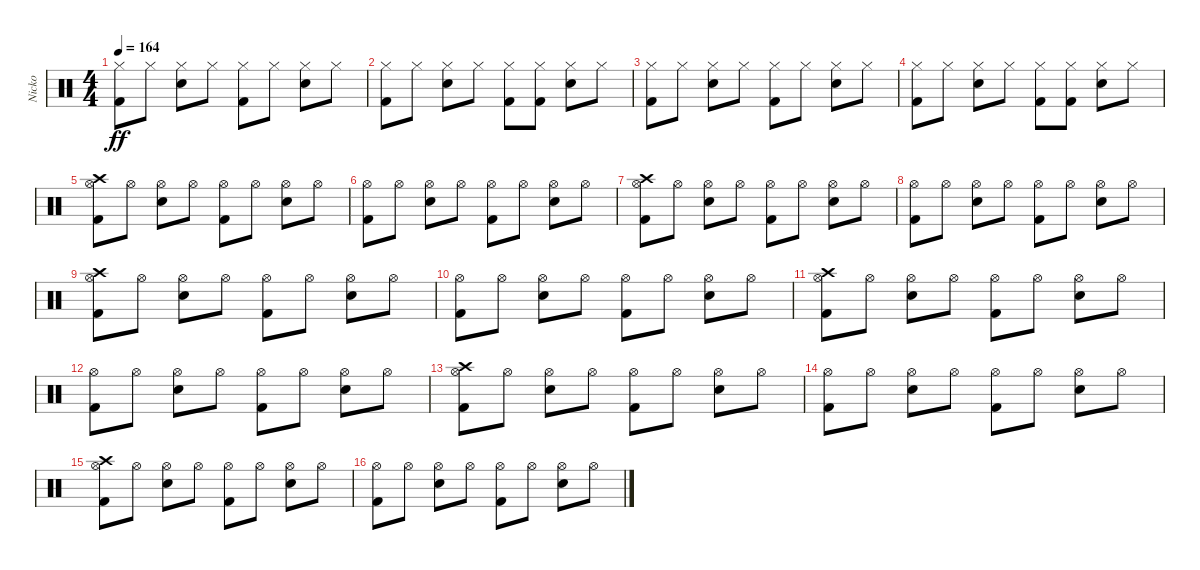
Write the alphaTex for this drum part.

\track ("Nicko" "Nicko") {instrument percussion}
\staff {score}
\articulation defaults
\ts (4 4)
\tempo 164
\clef neutral
\ks c
("Kick (hit) 2" "Hi-Hat (closed)").8{dy ff} "Hi-Hat (closed)".8 ("Snare (hit) 2" "Hi-Hat (closed)").8 "Hi-Hat (closed)".8 ("Kick (hit) 2" "Hi-Hat (closed)").8 "Hi-Hat (closed)".8 ("Snare (hit) 2" "Hi-Hat (closed)").8 "Hi-Hat (closed)".8 |
("Kick (hit) 2" "Hi-Hat (closed)").8 "Hi-Hat (closed)".8 ("Snare (hit) 2" "Hi-Hat (closed)").8 "Hi-Hat (closed)".8 ("Kick (hit) 2" "Hi-Hat (closed)").8 ("Kick (hit) 2" "Hi-Hat (closed)").8 ("Snare (hit) 2" "Hi-Hat (closed)").8 "Hi-Hat (closed)".8 |
("Kick (hit) 2" "Hi-Hat (closed)").8 "Hi-Hat (closed)".8 ("Snare (hit) 2" "Hi-Hat (closed)").8 "Hi-Hat (closed)".8 ("Kick (hit) 2" "Hi-Hat (closed)").8 "Hi-Hat (closed)".8 ("Snare (hit) 2" "Hi-Hat (closed)").8 "Hi-Hat (closed)".8 |
("Kick (hit) 2" "Hi-Hat (closed)").8 "Hi-Hat (closed)".8 ("Snare (hit) 2" "Hi-Hat (closed)").8 "Hi-Hat (closed)".8 ("Kick (hit) 2" "Hi-Hat (closed)").8 ("Kick (hit) 2" "Hi-Hat (closed)").8 ("Snare (hit) 2" "Hi-Hat (closed)").8 "Hi-Hat (closed)".8 |
("Kick (hit) 2" "Hi-Hat (open)" "Crash high (hit)").8 "Hi-Hat (open)".8 ("Snare (hit) 2" "Hi-Hat (open)").8 "Hi-Hat (open)".8 ("Kick (hit) 2" "Hi-Hat (open)").8 "Hi-Hat (open)".8 ("Snare (hit) 2" "Hi-Hat (open)").8 "Hi-Hat (open)".8 |
("Kick (hit) 2" "Hi-Hat (open)").8 "Hi-Hat (open)".8 ("Snare (hit) 2" "Hi-Hat (open)").8 "Hi-Hat (open)".8 ("Kick (hit) 2" "Hi-Hat (open)").8 "Hi-Hat (open)".8 ("Snare (hit) 2" "Hi-Hat (open)").8 "Hi-Hat (open)".8 |
("Kick (hit) 2" "Hi-Hat (open)" "Crash high (hit)").8 "Hi-Hat (open)".8 ("Snare (hit) 2" "Hi-Hat (open)").8 "Hi-Hat (open)".8 ("Kick (hit) 2" "Hi-Hat (open)").8 "Hi-Hat (open)".8 ("Snare (hit) 2" "Hi-Hat (open)").8 "Hi-Hat (open)".8 |
("Kick (hit) 2" "Hi-Hat (open)").8 "Hi-Hat (open)".8 ("Snare (hit) 2" "Hi-Hat (open)").8 "Hi-Hat (open)".8 ("Kick (hit) 2" "Hi-Hat (open)").8 "Hi-Hat (open)".8 ("Snare (hit) 2" "Hi-Hat (open)").8 "Hi-Hat (open)".8 |
("Kick (hit) 2" "Hi-Hat (open)" "Crash high (hit)").8 "Hi-Hat (open)".8 ("Snare (hit) 2" "Hi-Hat (open)").8 "Hi-Hat (open)".8 ("Kick (hit) 2" "Hi-Hat (open)").8 "Hi-Hat (open)".8 ("Snare (hit) 2" "Hi-Hat (open)").8 "Hi-Hat (open)".8 |
("Kick (hit) 2" "Hi-Hat (open)").8 "Hi-Hat (open)".8 ("Snare (hit) 2" "Hi-Hat (open)").8 "Hi-Hat (open)".8 ("Kick (hit) 2" "Hi-Hat (open)").8 "Hi-Hat (open)".8 ("Snare (hit) 2" "Hi-Hat (open)").8 "Hi-Hat (open)".8 |
("Kick (hit) 2" "Hi-Hat (open)" "Crash high (hit)").8 "Hi-Hat (open)".8 ("Snare (hit) 2" "Hi-Hat (open)").8 "Hi-Hat (open)".8 ("Kick (hit) 2" "Hi-Hat (open)").8 "Hi-Hat (open)".8 ("Snare (hit) 2" "Hi-Hat (open)").8 "Hi-Hat (open)".8 |
("Kick (hit) 2" "Hi-Hat (open)").8 "Hi-Hat (open)".8 ("Snare (hit) 2" "Hi-Hat (open)").8 "Hi-Hat (open)".8 ("Kick (hit) 2" "Hi-Hat (open)").8 "Hi-Hat (open)".8 ("Snare (hit) 2" "Hi-Hat (open)").8 "Hi-Hat (open)".8 |
("Kick (hit) 2" "Hi-Hat (open)" "Crash high (hit)").8 "Hi-Hat (open)".8 ("Snare (hit) 2" "Hi-Hat (open)").8 "Hi-Hat (open)".8 ("Kick (hit) 2" "Hi-Hat (open)").8 "Hi-Hat (open)".8 ("Snare (hit) 2" "Hi-Hat (open)").8 "Hi-Hat (open)".8 |
("Kick (hit) 2" "Hi-Hat (open)").8 "Hi-Hat (open)".8 ("Snare (hit) 2" "Hi-Hat (open)").8 "Hi-Hat (open)".8 ("Kick (hit) 2" "Hi-Hat (open)").8 "Hi-Hat (open)".8 ("Snare (hit) 2" "Hi-Hat (open)").8 "Hi-Hat (open)".8 |
("Kick (hit) 2" "Hi-Hat (open)" "Crash high (hit)").8 "Hi-Hat (open)".8 ("Snare (hit) 2" "Hi-Hat (open)").8 "Hi-Hat (open)".8 ("Kick (hit) 2" "Hi-Hat (open)").8 "Hi-Hat (open)".8 ("Snare (hit) 2" "Hi-Hat (open)").8 "Hi-Hat (open)".8 |
("Kick (hit) 2" "Hi-Hat (open)").8 "Hi-Hat (open)".8 ("Snare (hit) 2" "Hi-Hat (open)").8 "Hi-Hat (open)".8 ("Kick (hit) 2" "Hi-Hat (open)").8 "Hi-Hat (open)".8 ("Snare (hit) 2" "Hi-Hat (open)").8 "Hi-Hat (open)".8
